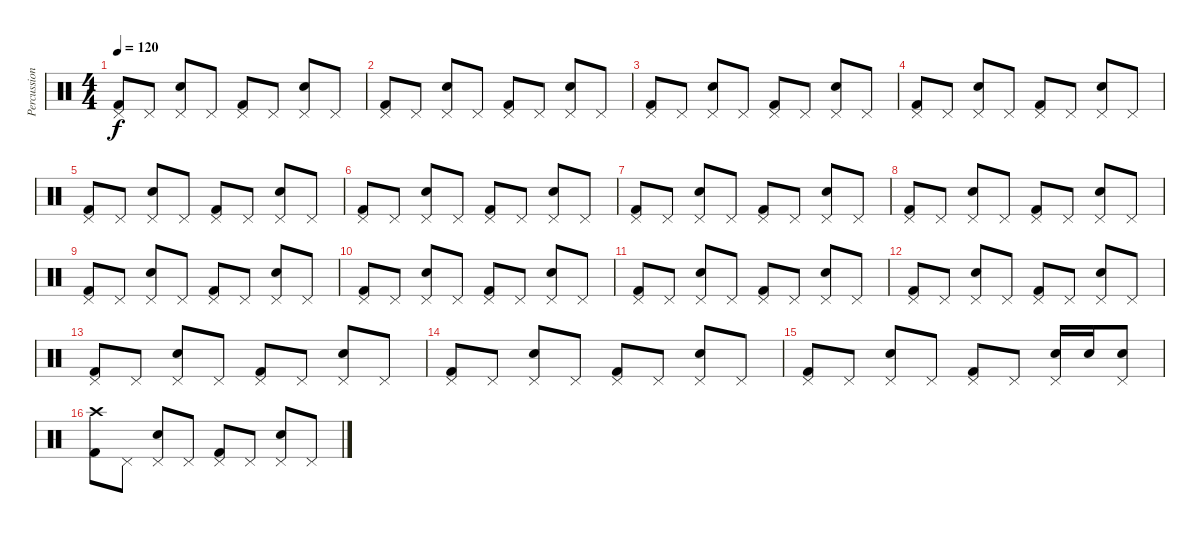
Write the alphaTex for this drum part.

\track ("Percussions" "Percussion") {instrument percussion}
\staff {score}
\articulation defaults
\ts (4 4)
\tempo 120
\clef neutral
\ks c
("Pedal Hi-Hat (hit)" "Kick (hit) 2").8{dy f} "Pedal Hi-Hat (hit)".8 ("Pedal Hi-Hat (hit)" "Snare (hit) 2").8 "Pedal Hi-Hat (hit)".8 ("Pedal Hi-Hat (hit)" "Kick (hit) 2").8 "Pedal Hi-Hat (hit)".8 ("Pedal Hi-Hat (hit)" "Snare (hit) 2").8 "Pedal Hi-Hat (hit)".8 |
("Pedal Hi-Hat (hit)" "Kick (hit) 2").8 "Pedal Hi-Hat (hit)".8 ("Pedal Hi-Hat (hit)" "Snare (hit) 2").8 "Pedal Hi-Hat (hit)".8 ("Pedal Hi-Hat (hit)" "Kick (hit) 2").8 "Pedal Hi-Hat (hit)".8 ("Pedal Hi-Hat (hit)" "Snare (hit) 2").8 "Pedal Hi-Hat (hit)".8 |
("Pedal Hi-Hat (hit)" "Kick (hit) 2").8 "Pedal Hi-Hat (hit)".8 ("Pedal Hi-Hat (hit)" "Snare (hit) 2").8 "Pedal Hi-Hat (hit)".8 ("Pedal Hi-Hat (hit)" "Kick (hit) 2").8 "Pedal Hi-Hat (hit)".8 ("Pedal Hi-Hat (hit)" "Snare (hit) 2").8 "Pedal Hi-Hat (hit)".8 |
("Pedal Hi-Hat (hit)" "Kick (hit) 2").8 "Pedal Hi-Hat (hit)".8 ("Pedal Hi-Hat (hit)" "Snare (hit) 2").8 "Pedal Hi-Hat (hit)".8 ("Pedal Hi-Hat (hit)" "Kick (hit) 2").8 "Pedal Hi-Hat (hit)".8 ("Pedal Hi-Hat (hit)" "Snare (hit) 2").8 "Pedal Hi-Hat (hit)".8 |
("Pedal Hi-Hat (hit)" "Kick (hit) 2").8 "Pedal Hi-Hat (hit)".8 ("Pedal Hi-Hat (hit)" "Snare (hit) 2").8 "Pedal Hi-Hat (hit)".8 ("Pedal Hi-Hat (hit)" "Kick (hit) 2").8 "Pedal Hi-Hat (hit)".8 ("Pedal Hi-Hat (hit)" "Snare (hit) 2").8 "Pedal Hi-Hat (hit)".8 |
("Pedal Hi-Hat (hit)" "Kick (hit) 2").8 "Pedal Hi-Hat (hit)".8 ("Pedal Hi-Hat (hit)" "Snare (hit) 2").8 "Pedal Hi-Hat (hit)".8 ("Pedal Hi-Hat (hit)" "Kick (hit) 2").8 "Pedal Hi-Hat (hit)".8 ("Pedal Hi-Hat (hit)" "Snare (hit) 2").8 "Pedal Hi-Hat (hit)".8 |
("Pedal Hi-Hat (hit)" "Kick (hit) 2").8 "Pedal Hi-Hat (hit)".8 ("Pedal Hi-Hat (hit)" "Snare (hit) 2").8 "Pedal Hi-Hat (hit)".8 ("Pedal Hi-Hat (hit)" "Kick (hit) 2").8 "Pedal Hi-Hat (hit)".8 ("Pedal Hi-Hat (hit)" "Snare (hit) 2").8 "Pedal Hi-Hat (hit)".8 |
("Pedal Hi-Hat (hit)" "Kick (hit) 2").8 "Pedal Hi-Hat (hit)".8 ("Pedal Hi-Hat (hit)" "Snare (hit) 2").8 "Pedal Hi-Hat (hit)".8 ("Pedal Hi-Hat (hit)" "Kick (hit) 2").8 "Pedal Hi-Hat (hit)".8 ("Pedal Hi-Hat (hit)" "Snare (hit) 2").8 "Pedal Hi-Hat (hit)".8 |
("Pedal Hi-Hat (hit)" "Kick (hit) 2").8 "Pedal Hi-Hat (hit)".8 ("Pedal Hi-Hat (hit)" "Snare (hit) 2").8 "Pedal Hi-Hat (hit)".8 ("Pedal Hi-Hat (hit)" "Kick (hit) 2").8 "Pedal Hi-Hat (hit)".8 ("Pedal Hi-Hat (hit)" "Snare (hit) 2").8 "Pedal Hi-Hat (hit)".8 |
("Pedal Hi-Hat (hit)" "Kick (hit) 2").8 "Pedal Hi-Hat (hit)".8 ("Pedal Hi-Hat (hit)" "Snare (hit) 2").8 "Pedal Hi-Hat (hit)".8 ("Pedal Hi-Hat (hit)" "Kick (hit) 2").8 "Pedal Hi-Hat (hit)".8 ("Pedal Hi-Hat (hit)" "Snare (hit) 2").8 "Pedal Hi-Hat (hit)".8 |
("Pedal Hi-Hat (hit)" "Kick (hit) 2").8 "Pedal Hi-Hat (hit)".8 ("Pedal Hi-Hat (hit)" "Snare (hit) 2").8 "Pedal Hi-Hat (hit)".8 ("Pedal Hi-Hat (hit)" "Kick (hit) 2").8 "Pedal Hi-Hat (hit)".8 ("Pedal Hi-Hat (hit)" "Snare (hit) 2").8 "Pedal Hi-Hat (hit)".8 |
("Pedal Hi-Hat (hit)" "Kick (hit) 2").8 "Pedal Hi-Hat (hit)".8 ("Pedal Hi-Hat (hit)" "Snare (hit) 2").8 "Pedal Hi-Hat (hit)".8 ("Pedal Hi-Hat (hit)" "Kick (hit) 2").8 "Pedal Hi-Hat (hit)".8 ("Pedal Hi-Hat (hit)" "Snare (hit) 2").8 "Pedal Hi-Hat (hit)".8 |
("Pedal Hi-Hat (hit)" "Kick (hit) 2").8 "Pedal Hi-Hat (hit)".8 ("Pedal Hi-Hat (hit)" "Snare (hit) 2").8 "Pedal Hi-Hat (hit)".8 ("Pedal Hi-Hat (hit)" "Kick (hit) 2").8 "Pedal Hi-Hat (hit)".8 ("Pedal Hi-Hat (hit)" "Snare (hit) 2").8 "Pedal Hi-Hat (hit)".8 |
("Pedal Hi-Hat (hit)" "Kick (hit) 2").8 "Pedal Hi-Hat (hit)".8 ("Pedal Hi-Hat (hit)" "Snare (hit) 2").8 "Pedal Hi-Hat (hit)".8 ("Pedal Hi-Hat (hit)" "Kick (hit) 2").8 "Pedal Hi-Hat (hit)".8 ("Pedal Hi-Hat (hit)" "Snare (hit) 2").8 "Pedal Hi-Hat (hit)".8 |
("Pedal Hi-Hat (hit)" "Kick (hit) 2").8 "Pedal Hi-Hat (hit)".8 ("Pedal Hi-Hat (hit)" "Snare (hit) 2").8 "Pedal Hi-Hat (hit)".8 ("Pedal Hi-Hat (hit)" "Kick (hit) 2").8 "Pedal Hi-Hat (hit)".8 ("Pedal Hi-Hat (hit)" "Snare (hit) 2").16 "Snare (hit) 2".16 ("Pedal Hi-Hat (hit)" "Snare (hit) 2").8 |
("Crash high (hit)" "Kick (hit) 2").8 "Pedal Hi-Hat (hit)".8 ("Pedal Hi-Hat (hit)" "Snare (hit) 2").8 "Pedal Hi-Hat (hit)".8 ("Pedal Hi-Hat (hit)" "Kick (hit) 2").8 "Pedal Hi-Hat (hit)".8 ("Pedal Hi-Hat (hit)" "Snare (hit) 2").8 "Pedal Hi-Hat (hit)".8
